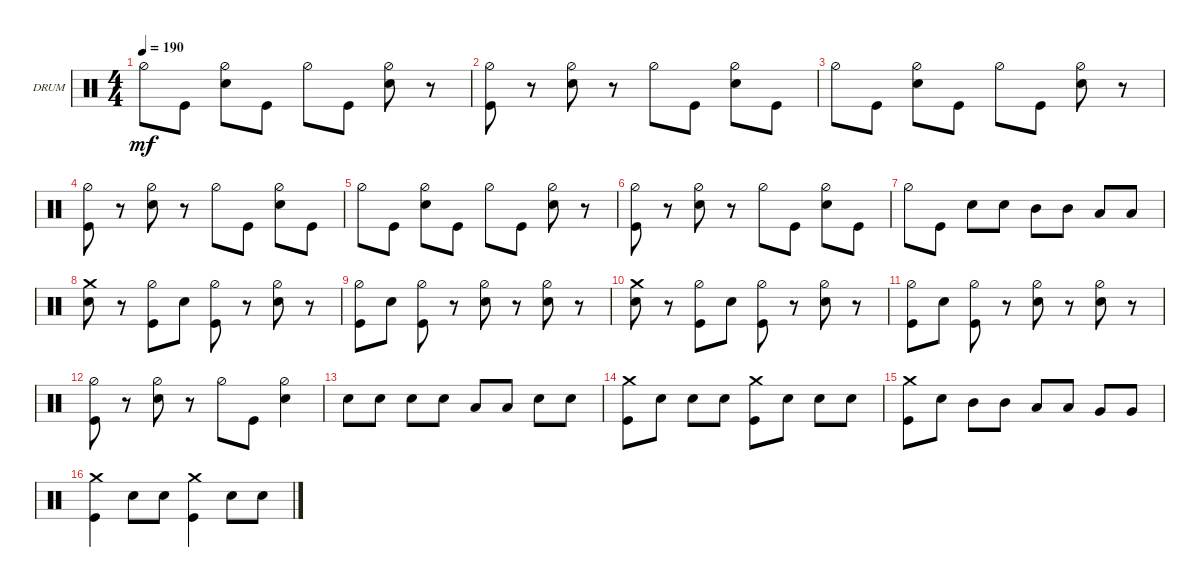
\defaultSystemsLayout 4
\bracketExtendMode groupsimilarinstruments
\firstSystemTrackNameOrientation horizontal
\otherSystemsTrackNameOrientation horizontal
\track ("Drums" "DRUM") {instrument percussion}
\staff {score}
\articulation defaults
\ts (4 4)
\tempo 190
\clef neutral
\ks c "Hi-Hat (half)".8{dy mf} "Kick (hit)".8
("Snare (hit) 2" "Hi-Hat (half)").8 "Kick (hit)".8 "Hi-Hat (half)".8 "Kick (hit)".8 ("Snare (hit) 2" "Hi-Hat (half)").8 r.8 |
("Kick (hit)" "Hi-Hat (half)").8 r.8 ("Snare (hit) 2" "Hi-Hat (half)").8 r.8 "Hi-Hat (half)".8 "Kick (hit)".8 ("Snare (hit) 2" "Hi-Hat (half)").8 "Kick (hit)".8 |
"Hi-Hat (half)".8 "Kick (hit)".8 ("Snare (hit) 2" "Hi-Hat (half)").8 "Kick (hit)".8 "Hi-Hat (half)".8 "Kick (hit)".8 ("Snare (hit) 2" "Hi-Hat (half)").8 r.8 |
("Kick (hit)" "Hi-Hat (half)").8 r.8 ("Snare (hit) 2" "Hi-Hat (half)").8 r.8 "Hi-Hat (half)".8 "Kick (hit)".8 ("Snare (hit) 2" "Hi-Hat (half)").8 "Kick (hit)".8 |
"Hi-Hat (half)".8 "Kick (hit)".8 ("Snare (hit) 2" "Hi-Hat (half)").8 "Kick (hit)".8 "Hi-Hat (half)".8 "Kick (hit)".8 ("Snare (hit) 2" "Hi-Hat (half)").8 r.8 |
("Kick (hit)" "Hi-Hat (half)").8 r.8 ("Snare (hit) 2" "Hi-Hat (half)").8 r.8 "Hi-Hat (half)".8 "Kick (hit)".8 ("Snare (hit) 2" "Hi-Hat (half)").8 "Kick (hit)".8 |
"Hi-Hat (half)".8 "Kick (hit)".8 "Snare (hit) 2".8 "Snare (hit) 2".8 "Mid Tom (hit)".8 "Mid Tom (hit)".8 "Low Tom (hit)".8 "Low Tom (hit)".8 |
("Snare (hit) 2" "Crash medium (hit)").8 r.8 ("Kick (hit)" "Hi-Hat (half)").8 "Snare (hit) 2".8 ("Kick (hit)" "Hi-Hat (half)").8 r.8 ("Snare (hit) 2" "Hi-Hat (half)").8 r.8 |
("Kick (hit)" "Hi-Hat (half)").8 "Snare (hit) 2".8 ("Kick (hit)" "Hi-Hat (half)").8 r.8 ("Snare (hit) 2" "Hi-Hat (half)").8 r.8 ("Snare (hit) 2" "Hi-Hat (half)").8 r.8 |
("Snare (hit) 2" "Crash medium (hit)").8 r.8 ("Kick (hit)" "Hi-Hat (half)").8 "Snare (hit) 2".8 ("Kick (hit)" "Hi-Hat (half)").8 r.8 ("Snare (hit) 2" "Hi-Hat (half)").8 r.8 |
("Kick (hit)" "Hi-Hat (half)").8 "Snare (hit) 2".8 ("Kick (hit)" "Hi-Hat (half)").8 r.8 ("Snare (hit) 2" "Hi-Hat (half)").8 r.8 ("Snare (hit) 2" "Hi-Hat (half)").8 r.8 |
("Kick (hit)" "Hi-Hat (half)").8 r.8 ("Snare (hit) 2" "Hi-Hat (half)").8 r.8 "Hi-Hat (half)".8 "Kick (hit)".8 ("Snare (hit) 2" "Hi-Hat (half)").4 |
"Snare (hit) 2".8 "Snare (hit) 2".8 "Snare (hit) 2".8 "Snare (hit) 2".8 "Low Tom (hit)".8 "Low Tom (hit)".8 "Snare (hit) 2".8 "Snare (hit) 2".8 |
("Kick (hit)" "Crash medium (hit)").8 "Snare (hit) 2".8 "Snare (hit) 2".8 "Snare (hit) 2".8 ("Kick (hit)" "Crash medium (hit)").8 "Snare (hit) 2".8 "Snare (hit) 2".8 "Snare (hit) 2".8 |
("Kick (hit)" "Crash medium (hit)").8 "Snare (hit) 2".8 "Mid Tom (hit)".8 "Mid Tom (hit)".8 "Low Tom (hit)".8 "Low Tom (hit)".8 "Very Low Tom (hit)".8 "Very Low Tom (hit)".8 |
("Kick (hit)" "Crash medium (hit)").4 "Snare (hit) 2".8 "Snare (hit) 2".8 ("Kick (hit)" "Crash medium (hit)").4 "Snare (hit) 2".8 "Snare (hit) 2".8
